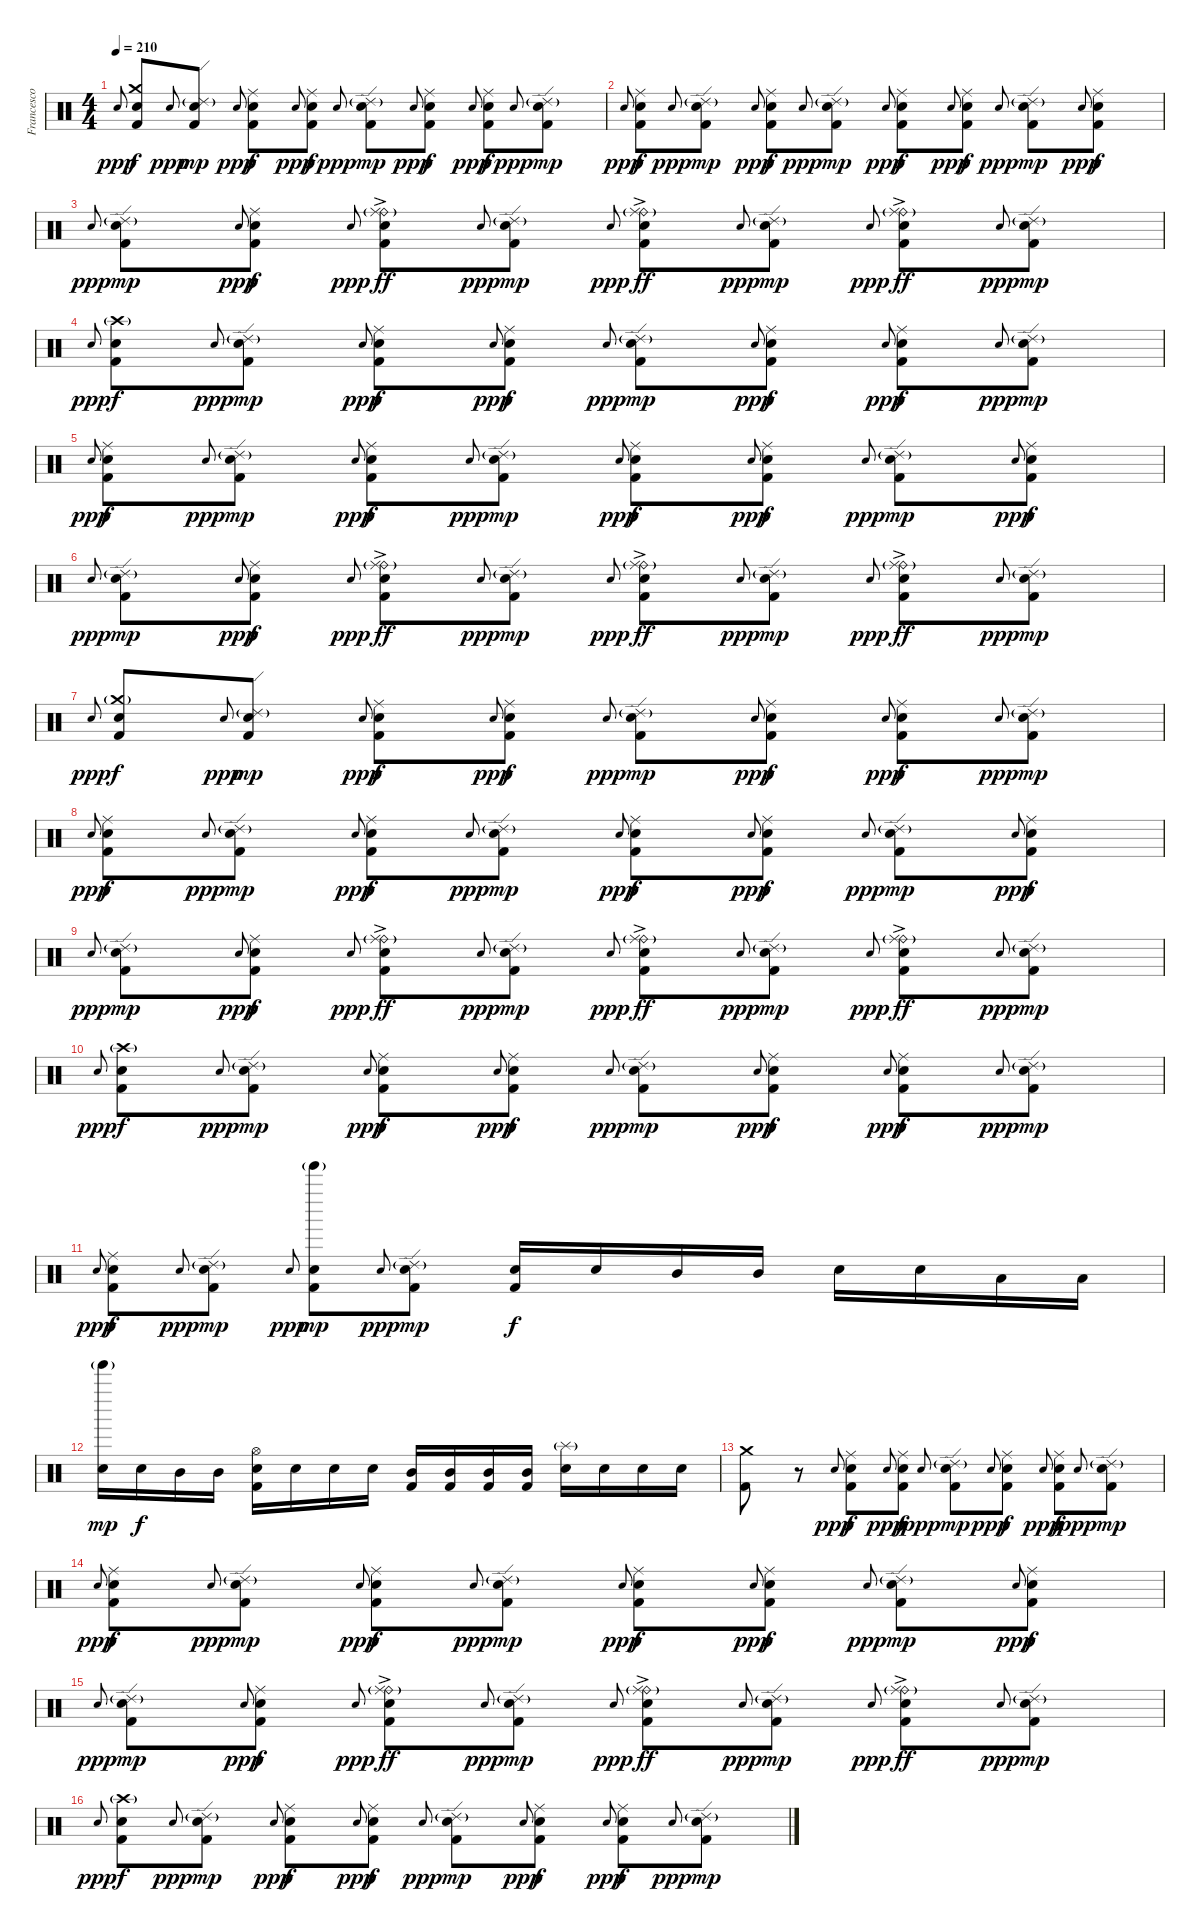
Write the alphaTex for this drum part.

\track ("Francesco Ferrini" "Francesco ") {instrument percussion}
\staff {score}
\articulation defaults
\ts (4 4)
\tempo 210
\clef neutral
\ks c "Electric Snare (hit)"{h}.8{gr onbeat dy ppp}
("Crash medium (hit)" "Electric Snare (hit)" "Kick (hit) 2").8{dy f} "Electric Snare (hit)"{h}.8{gr onbeat dy ppp} ("Ride (edge) 2"{g} "Electric Snare (hit)" "Kick (hit) 2").8{dy mp} "Electric Snare (hit)"{h}.8{gr onbeat dy ppp} ("Ride (middle)" "Electric Snare (hit)" "Kick (hit) 2").8{dy f} "Electric Snare (hit)"{h}.8{gr onbeat dy ppp} ("Ride (middle)" "Electric Snare (hit)" "Kick (hit) 2").8{dy f} "Electric Snare (hit)"{h}.8{gr onbeat dy ppp} ("Ride (edge) 2"{g} "Electric Snare (hit)" "Kick (hit) 2").8{dy mp} "Electric Snare (hit)"{h}.8{gr onbeat dy ppp} ("Ride (middle)" "Electric Snare (hit)" "Kick (hit) 2").8{dy f} "Electric Snare (hit)"{h}.8{gr onbeat dy ppp} ("Ride (middle)" "Electric Snare (hit)" "Kick (hit) 2").8{dy f} "Electric Snare (hit)"{h}.8{gr onbeat dy ppp} ("Ride (edge) 2"{g} "Electric Snare (hit)" "Kick (hit) 2").8{dy mp} |
"Electric Snare (hit)"{h}.8{gr onbeat dy ppp} ("Ride (middle)" "Electric Snare (hit)" "Kick (hit) 2").8{dy f} "Electric Snare (hit)"{h}.8{gr onbeat dy ppp} ("Ride (edge) 2"{g} "Electric Snare (hit)" "Kick (hit) 2").8{dy mp} "Electric Snare (hit)"{h}.8{gr onbeat dy ppp} ("Ride (middle)" "Electric Snare (hit)" "Kick (hit) 2").8{dy f} "Electric Snare (hit)"{h}.8{gr onbeat dy ppp} ("Ride (edge) 2"{g} "Electric Snare (hit)" "Kick (hit) 2").8{dy mp} "Electric Snare (hit)"{h}.8{gr onbeat dy ppp} ("Ride (middle)" "Electric Snare (hit)" "Kick (hit) 2").8{dy f} "Electric Snare (hit)"{h}.8{gr onbeat dy ppp} ("Ride (middle)" "Electric Snare (hit)" "Kick (hit) 2").8{dy f} "Electric Snare (hit)"{h}.8{gr onbeat dy ppp} ("Ride (edge) 2"{g} "Electric Snare (hit)" "Kick (hit) 2").8{dy mp} "Electric Snare (hit)"{h}.8{gr onbeat dy ppp} ("Ride (middle)" "Electric Snare (hit)" "Kick (hit) 2").8{dy f} |
"Electric Snare (hit)"{h}.8{gr onbeat dy ppp} ("Ride (edge) 2"{g} "Electric Snare (hit)" "Kick (hit) 2").8{dy mp} "Electric Snare (hit)"{h}.8{gr onbeat dy ppp} ("Ride (middle)" "Electric Snare (hit)" "Kick (hit) 2").8{dy f} "Electric Snare (hit)"{h}.8{gr onbeat dy ppp} ("Ride (bell)"{g} "Ride (middle)"{ac} "Electric Snare (hit)" "Kick (hit) 2").8{dy ff} "Electric Snare (hit)"{h}.8{gr onbeat dy ppp} ("Ride (edge) 2"{g} "Electric Snare (hit)" "Kick (hit) 2").8{dy mp} "Electric Snare (hit)"{h}.8{gr onbeat dy ppp} ("Ride (bell)"{g} "Ride (middle)"{ac} "Electric Snare (hit)" "Kick (hit) 2").8{dy ff} "Electric Snare (hit)"{h}.8{gr onbeat dy ppp} ("Ride (edge) 2"{g} "Electric Snare (hit)" "Kick (hit) 2").8{dy mp} "Electric Snare (hit)"{h}.8{gr onbeat dy ppp} ("Ride (bell)"{g} "Ride (middle)"{ac} "Electric Snare (hit)" "Kick (hit) 2").8{dy ff} "Electric Snare (hit)"{h}.8{gr onbeat dy ppp} ("Ride (edge) 2"{g} "Electric Snare (hit)" "Kick (hit) 2").8{dy mp} |
"Electric Snare (hit)"{h}.8{gr onbeat dy ppp} ("Crash high (hit)"{g} "Electric Snare (hit)" "Kick (hit) 2").8{dy f} "Electric Snare (hit)"{h}.8{gr onbeat dy ppp} ("Ride (edge) 2"{g} "Electric Snare (hit)" "Kick (hit) 2").8{dy mp} "Electric Snare (hit)"{h}.8{gr onbeat dy ppp} ("Ride (middle)" "Electric Snare (hit)" "Kick (hit) 2").8{dy f} "Electric Snare (hit)"{h}.8{gr onbeat dy ppp} ("Ride (middle)" "Electric Snare (hit)" "Kick (hit) 2").8{dy f} "Electric Snare (hit)"{h}.8{gr onbeat dy ppp} ("Ride (edge) 2"{g} "Electric Snare (hit)" "Kick (hit) 2").8{dy mp} "Electric Snare (hit)"{h}.8{gr onbeat dy ppp} ("Ride (middle)" "Electric Snare (hit)" "Kick (hit) 2").8{dy f} "Electric Snare (hit)"{h}.8{gr onbeat dy ppp} ("Ride (middle)" "Electric Snare (hit)" "Kick (hit) 2").8{dy f} "Electric Snare (hit)"{h}.8{gr onbeat dy ppp} ("Ride (edge) 2"{g} "Electric Snare (hit)" "Kick (hit) 2").8{dy mp} |
"Electric Snare (hit)"{h}.8{gr onbeat dy ppp} ("Ride (middle)" "Electric Snare (hit)" "Kick (hit) 2").8{dy f} "Electric Snare (hit)"{h}.8{gr onbeat dy ppp} ("Ride (edge) 2"{g} "Electric Snare (hit)" "Kick (hit) 2").8{dy mp} "Electric Snare (hit)"{h}.8{gr onbeat dy ppp} ("Ride (middle)" "Electric Snare (hit)" "Kick (hit) 2").8{dy f} "Electric Snare (hit)"{h}.8{gr onbeat dy ppp} ("Ride (edge) 2"{g} "Electric Snare (hit)" "Kick (hit) 2").8{dy mp} "Electric Snare (hit)"{h}.8{gr onbeat dy ppp} ("Ride (middle)" "Electric Snare (hit)" "Kick (hit) 2").8{dy f} "Electric Snare (hit)"{h}.8{gr onbeat dy ppp} ("Ride (middle)" "Electric Snare (hit)" "Kick (hit) 2").8{dy f} "Electric Snare (hit)"{h}.8{gr onbeat dy ppp} ("Ride (edge) 2"{g} "Electric Snare (hit)" "Kick (hit) 2").8{dy mp} "Electric Snare (hit)"{h}.8{gr onbeat dy ppp} ("Ride (middle)" "Electric Snare (hit)" "Kick (hit) 2").8{dy f} |
"Electric Snare (hit)"{h}.8{gr onbeat dy ppp} ("Ride (edge) 2"{g} "Electric Snare (hit)" "Kick (hit) 2").8{dy mp} "Electric Snare (hit)"{h}.8{gr onbeat dy ppp} ("Ride (middle)" "Electric Snare (hit)" "Kick (hit) 2").8{dy f} "Electric Snare (hit)"{h}.8{gr onbeat dy ppp} ("Ride (bell)"{g} "Ride (middle)"{ac} "Electric Snare (hit)" "Kick (hit) 2").8{dy ff} "Electric Snare (hit)"{h}.8{gr onbeat dy ppp} ("Ride (edge) 2"{g} "Electric Snare (hit)" "Kick (hit) 2").8{dy mp} "Electric Snare (hit)"{h}.8{gr onbeat dy ppp} ("Ride (bell)"{g} "Ride (middle)"{ac} "Electric Snare (hit)" "Kick (hit) 2").8{dy ff} "Electric Snare (hit)"{h}.8{gr onbeat dy ppp} ("Ride (edge) 2"{g} "Electric Snare (hit)" "Kick (hit) 2").8{dy mp} "Electric Snare (hit)"{h}.8{gr onbeat dy ppp} ("Ride (bell)"{g} "Ride (middle)"{ac} "Electric Snare (hit)" "Kick (hit) 2").8{dy ff} "Electric Snare (hit)"{h}.8{gr onbeat dy ppp} ("Ride (edge) 2"{g} "Electric Snare (hit)" "Kick (hit) 2").8{dy mp} |
"Electric Snare (hit)"{h}.8{gr onbeat dy ppp} ("Crash medium (hit)"{g} "Electric Snare (hit)" "Kick (hit) 2").8{dy f} "Electric Snare (hit)"{h}.8{gr onbeat dy ppp} ("Ride (edge) 2"{g} "Electric Snare (hit)" "Kick (hit) 2").8{dy mp} "Electric Snare (hit)"{h}.8{gr onbeat dy ppp} ("Ride (middle)" "Electric Snare (hit)" "Kick (hit) 2").8{dy f} "Electric Snare (hit)"{h}.8{gr onbeat dy ppp} ("Ride (middle)" "Electric Snare (hit)" "Kick (hit) 2").8{dy f} "Electric Snare (hit)"{h}.8{gr onbeat dy ppp} ("Ride (edge) 2"{g} "Electric Snare (hit)" "Kick (hit) 2").8{dy mp} "Electric Snare (hit)"{h}.8{gr onbeat dy ppp} ("Ride (middle)" "Electric Snare (hit)" "Kick (hit) 2").8{dy f} "Electric Snare (hit)"{h}.8{gr onbeat dy ppp} ("Ride (middle)" "Electric Snare (hit)" "Kick (hit) 2").8{dy f} "Electric Snare (hit)"{h}.8{gr onbeat dy ppp} ("Ride (edge) 2"{g} "Electric Snare (hit)" "Kick (hit) 2").8{dy mp} |
"Electric Snare (hit)"{h}.8{gr onbeat dy ppp} ("Ride (middle)" "Electric Snare (hit)" "Kick (hit) 2").8{dy f} "Electric Snare (hit)"{h}.8{gr onbeat dy ppp} ("Ride (edge) 2"{g} "Electric Snare (hit)" "Kick (hit) 2").8{dy mp} "Electric Snare (hit)"{h}.8{gr onbeat dy ppp} ("Ride (middle)" "Electric Snare (hit)" "Kick (hit) 2").8{dy f} "Electric Snare (hit)"{h}.8{gr onbeat dy ppp} ("Ride (edge) 2"{g} "Electric Snare (hit)" "Kick (hit) 2").8{dy mp} "Electric Snare (hit)"{h}.8{gr onbeat dy ppp} ("Ride (middle)" "Electric Snare (hit)" "Kick (hit) 2").8{dy f} "Electric Snare (hit)"{h}.8{gr onbeat dy ppp} ("Ride (middle)" "Electric Snare (hit)" "Kick (hit) 2").8{dy f} "Electric Snare (hit)"{h}.8{gr onbeat dy ppp} ("Ride (edge) 2"{g} "Electric Snare (hit)" "Kick (hit) 2").8{dy mp} "Electric Snare (hit)"{h}.8{gr onbeat dy ppp} ("Ride (middle)" "Electric Snare (hit)" "Kick (hit) 2").8{dy f} |
"Electric Snare (hit)"{h}.8{gr onbeat dy ppp} ("Ride (edge) 2"{g} "Electric Snare (hit)" "Kick (hit) 2").8{dy mp} "Electric Snare (hit)"{h}.8{gr onbeat dy ppp} ("Ride (middle)" "Electric Snare (hit)" "Kick (hit) 2").8{dy f} "Electric Snare (hit)"{h}.8{gr onbeat dy ppp} ("Ride (bell)"{g} "Ride (middle)"{ac} "Electric Snare (hit)" "Kick (hit) 2").8{dy ff} "Electric Snare (hit)"{h}.8{gr onbeat dy ppp} ("Ride (edge) 2"{g} "Electric Snare (hit)" "Kick (hit) 2").8{dy mp} "Electric Snare (hit)"{h}.8{gr onbeat dy ppp} ("Ride (bell)"{g} "Ride (middle)"{ac} "Electric Snare (hit)" "Kick (hit) 2").8{dy ff} "Electric Snare (hit)"{h}.8{gr onbeat dy ppp} ("Ride (edge) 2"{g} "Electric Snare (hit)" "Kick (hit) 2").8{dy mp} "Electric Snare (hit)"{h}.8{gr onbeat dy ppp} ("Ride (bell)"{g} "Ride (middle)"{ac} "Electric Snare (hit)" "Kick (hit) 2").8{dy ff} "Electric Snare (hit)"{h}.8{gr onbeat dy ppp} ("Ride (edge) 2"{g} "Electric Snare (hit)" "Kick (hit) 2").8{dy mp} |
"Electric Snare (hit)"{h}.8{gr onbeat dy ppp} ("Crash high (hit)"{g} "Electric Snare (hit)" "Kick (hit) 2").8{dy f} "Electric Snare (hit)"{h}.8{gr onbeat dy ppp} ("Ride (edge) 2"{g} "Electric Snare (hit)" "Kick (hit) 2").8{dy mp} "Electric Snare (hit)"{h}.8{gr onbeat dy ppp} ("Ride (middle)" "Electric Snare (hit)" "Kick (hit) 2").8{dy f} "Electric Snare (hit)"{h}.8{gr onbeat dy ppp} ("Ride (middle)" "Electric Snare (hit)" "Kick (hit) 2").8{dy f} "Electric Snare (hit)"{h}.8{gr onbeat dy ppp} ("Ride (edge) 2"{g} "Electric Snare (hit)" "Kick (hit) 2").8{dy mp} "Electric Snare (hit)"{h}.8{gr onbeat dy ppp} ("Ride (middle)" "Electric Snare (hit)" "Kick (hit) 2").8{dy f} "Electric Snare (hit)"{h}.8{gr onbeat dy ppp} ("Ride (middle)" "Electric Snare (hit)" "Kick (hit) 2").8{dy f} "Electric Snare (hit)"{h}.8{gr onbeat dy ppp} ("Ride (edge) 2"{g} "Electric Snare (hit)" "Kick (hit) 2").8{dy mp} |
"Electric Snare (hit)"{h}.8{gr onbeat dy ppp} ("Ride (middle)" "Electric Snare (hit)" "Kick (hit) 2").8{dy f} "Electric Snare (hit)"{h}.8{gr onbeat dy ppp} ("Ride (edge) 2"{g} "Electric Snare (hit)" "Kick (hit) 2").8{dy mp} "Electric Snare (hit)"{h}.8{gr onbeat dy ppp} ("Tinkle Bell (hit)"{g} "Electric Snare (hit)" "Kick (hit) 2").8{dy mp} "Electric Snare (hit)"{h}.8{gr onbeat dy ppp} ("Ride (edge) 2"{g} "Electric Snare (hit)" "Kick (hit) 2").8{dy mp} ("Electric Snare (hit)" "Kick (hit) 2").16{dy f} "Electric Snare (hit)".16 "Mid Tom (hit)".16 "Mid Tom (hit)".16 "Electric Snare (hit)".16 "Electric Snare (hit)".16 "Low Tom (hit)".16 "Low Tom (hit)".16 |
("Tinkle Bell (hit)"{g} "Electric Snare (hit)").16{dy mp} "Electric Snare (hit)".16{dy f} "Mid Tom (hit)".16 "Mid Tom (hit)".16 ("Hi-Hat (open)" "Electric Snare (hit)" "Kick (hit) 2").16 "Electric Snare (hit)".16 "Electric Snare (hit)".16 "Electric Snare (hit)".16 ("Mid Tom (hit)" "Kick (hit) 2").16 ("Mid Tom (hit)" "Kick (hit) 2").16 ("Mid Tom (hit)" "Kick (hit) 2").16 ("Mid Tom (hit)" "Kick (hit) 2").16 ("Splash (hit)"{g} "Electric Snare (hit)").16 "Electric Snare (hit)".16 "Electric Snare (hit)".16 "Electric Snare (hit)".16 |
("Crash medium (hit)" "Kick (hit) 2").8 r.8 "Electric Snare (hit)"{h}.8{gr onbeat dy ppp} ("Ride (middle)" "Electric Snare (hit)" "Kick (hit) 2").8{dy f} "Electric Snare (hit)"{h}.8{gr onbeat dy ppp} ("Ride (middle)" "Electric Snare (hit)" "Kick (hit) 2").8{dy f} "Electric Snare (hit)"{h}.8{gr onbeat dy ppp} ("Ride (edge) 2"{g} "Electric Snare (hit)" "Kick (hit) 2").8{dy mp} "Electric Snare (hit)"{h}.8{gr onbeat dy ppp} ("Ride (middle)" "Electric Snare (hit)" "Kick (hit) 2").8{dy f} "Electric Snare (hit)"{h}.8{gr onbeat dy ppp} ("Ride (middle)" "Electric Snare (hit)" "Kick (hit) 2").8{dy f} "Electric Snare (hit)"{h}.8{gr onbeat dy ppp} ("Ride (edge) 2"{g} "Electric Snare (hit)" "Kick (hit) 2").8{dy mp} |
"Electric Snare (hit)"{h}.8{gr onbeat dy ppp} ("Ride (middle)" "Electric Snare (hit)" "Kick (hit) 2").8{dy f} "Electric Snare (hit)"{h}.8{gr onbeat dy ppp} ("Ride (edge) 2"{g} "Electric Snare (hit)" "Kick (hit) 2").8{dy mp} "Electric Snare (hit)"{h}.8{gr onbeat dy ppp} ("Ride (middle)" "Electric Snare (hit)" "Kick (hit) 2").8{dy f} "Electric Snare (hit)"{h}.8{gr onbeat dy ppp} ("Ride (edge) 2"{g} "Electric Snare (hit)" "Kick (hit) 2").8{dy mp} "Electric Snare (hit)"{h}.8{gr onbeat dy ppp} ("Ride (middle)" "Electric Snare (hit)" "Kick (hit) 2").8{dy f} "Electric Snare (hit)"{h}.8{gr onbeat dy ppp} ("Ride (middle)" "Electric Snare (hit)" "Kick (hit) 2").8{dy f} "Electric Snare (hit)"{h}.8{gr onbeat dy ppp} ("Ride (edge) 2"{g} "Electric Snare (hit)" "Kick (hit) 2").8{dy mp} "Electric Snare (hit)"{h}.8{gr onbeat dy ppp} ("Ride (middle)" "Electric Snare (hit)" "Kick (hit) 2").8{dy f} |
"Electric Snare (hit)"{h}.8{gr onbeat dy ppp} ("Ride (edge) 2"{g} "Electric Snare (hit)" "Kick (hit) 2").8{dy mp} "Electric Snare (hit)"{h}.8{gr onbeat dy ppp} ("Ride (middle)" "Electric Snare (hit)" "Kick (hit) 2").8{dy f} "Electric Snare (hit)"{h}.8{gr onbeat dy ppp} ("Ride (bell)"{g} "Ride (middle)"{ac} "Electric Snare (hit)" "Kick (hit) 2").8{dy ff} "Electric Snare (hit)"{h}.8{gr onbeat dy ppp} ("Ride (edge) 2"{g} "Electric Snare (hit)" "Kick (hit) 2").8{dy mp} "Electric Snare (hit)"{h}.8{gr onbeat dy ppp} ("Ride (bell)"{g} "Ride (middle)"{ac} "Electric Snare (hit)" "Kick (hit) 2").8{dy ff} "Electric Snare (hit)"{h}.8{gr onbeat dy ppp} ("Ride (edge) 2"{g} "Electric Snare (hit)" "Kick (hit) 2").8{dy mp} "Electric Snare (hit)"{h}.8{gr onbeat dy ppp} ("Ride (bell)"{g} "Ride (middle)"{ac} "Electric Snare (hit)" "Kick (hit) 2").8{dy ff} "Electric Snare (hit)"{h}.8{gr onbeat dy ppp} ("Ride (edge) 2"{g} "Electric Snare (hit)" "Kick (hit) 2").8{dy mp} |
"Electric Snare (hit)"{h}.8{gr onbeat dy ppp} ("Crash high (hit)"{g} "Electric Snare (hit)" "Kick (hit) 2").8{dy f} "Electric Snare (hit)"{h}.8{gr onbeat dy ppp} ("Ride (edge) 2"{g} "Electric Snare (hit)" "Kick (hit) 2").8{dy mp} "Electric Snare (hit)"{h}.8{gr onbeat dy ppp} ("Ride (middle)" "Electric Snare (hit)" "Kick (hit) 2").8{dy f} "Electric Snare (hit)"{h}.8{gr onbeat dy ppp} ("Ride (middle)" "Electric Snare (hit)" "Kick (hit) 2").8{dy f} "Electric Snare (hit)"{h}.8{gr onbeat dy ppp} ("Ride (edge) 2"{g} "Electric Snare (hit)" "Kick (hit) 2").8{dy mp} "Electric Snare (hit)"{h}.8{gr onbeat dy ppp} ("Ride (middle)" "Electric Snare (hit)" "Kick (hit) 2").8{dy f} "Electric Snare (hit)"{h}.8{gr onbeat dy ppp} ("Ride (middle)" "Electric Snare (hit)" "Kick (hit) 2").8{dy f} "Electric Snare (hit)"{h}.8{gr onbeat dy ppp} ("Ride (edge) 2"{g} "Electric Snare (hit)" "Kick (hit) 2").8{dy mp}
